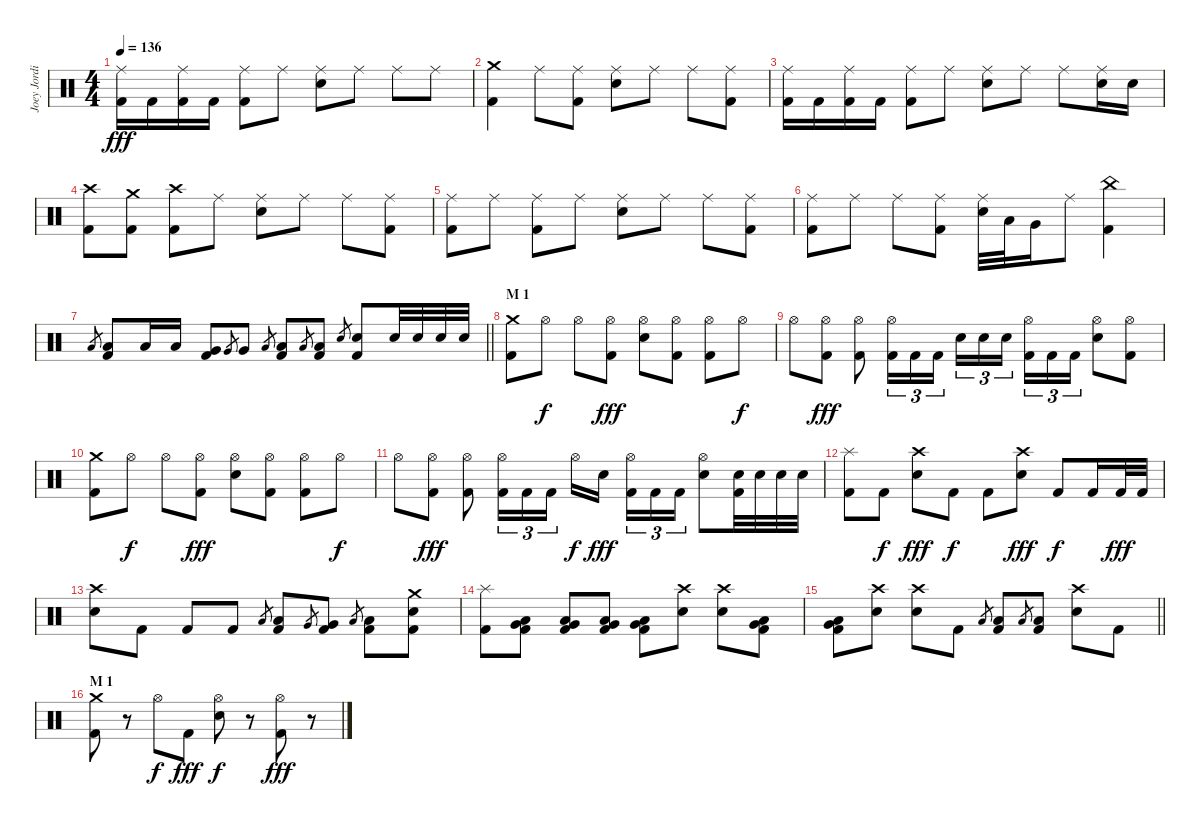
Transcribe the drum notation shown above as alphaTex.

\track ("Joey Jordison" "Joey Jordi") {instrument percussion}
\staff {score}
\articulation defaults
\ts (4 4)
\tempo 136
\clef neutral
\ks c
("Ride (middle)" "Kick (hit) 2").16{dy fff} "Kick (hit) 2".16 ("Ride (middle)" "Kick (hit) 2").16 "Kick (hit) 2".16 ("Ride (middle)" "Kick (hit) 2").8 "Ride (middle)".8 ("Ride (middle)" "Electric Snare (hit)").8 "Ride (middle)".8 "Ride (middle)".8 "Ride (middle)".8 |
("Crash medium (hit)" "Kick (hit) 2").4 "Ride (middle)".8 ("Ride (middle)" "Kick (hit) 2").8 ("Ride (middle)" "Electric Snare (hit)").8 "Ride (middle)".8 "Ride (middle)".8 ("Ride (middle)" "Kick (hit) 2").8 |
("Ride (middle)" "Kick (hit) 2").16 "Kick (hit) 2".16 ("Ride (middle)" "Kick (hit) 2").16 "Kick (hit) 2".16 ("Ride (middle)" "Kick (hit) 2").8 "Ride (middle)".8 ("Ride (middle)" "Electric Snare (hit)").8 "Ride (middle)".8 "Ride (middle)".8 ("Ride (middle)" "Electric Snare (hit)").16 "Electric Snare (hit)".16 |
("Crash high (hit)" "Kick (hit) 2").8 ("Crash medium (hit)" "Kick (hit) 2").8 ("Crash high (hit)" "Kick (hit) 2").8 "Ride (middle)".8 ("Ride (middle)" "Electric Snare (hit)").8 "Ride (middle)".8 "Ride (middle)".8 ("Ride (middle)" "Kick (hit) 2").8 |
("Ride (middle)" "Kick (hit) 2").8 "Ride (middle)".8 ("Ride (middle)" "Kick (hit) 2").8 "Ride (middle)".8 ("Ride (middle)" "Electric Snare (hit)").8 "Ride (middle)".8 "Ride (middle)".8 ("Ride (middle)" "Kick (hit) 2").8 |
("Ride (middle)" "Kick (hit) 2").8 "Ride (middle)".8 "Ride (middle)".8 ("Ride (middle)" "Kick (hit) 2").8 ("Ride (middle)" "Electric Snare (hit)").32 "Low Tom (hit)".32 "Very Low Tom (hit)".16 "Ride (middle)".8 ("China (hit)" "Kick (hit) 2").4 |
\barLineRight lightlight "Low Tom (hit)".8{gr}
("Low Tom (hit)" "Kick (hit) 2").8 "Low Tom (hit)".16 "Low Tom (hit)".16 ("Very Low Tom (hit)" "Kick (hit) 2").8 "Very Low Tom (hit)".8{gr} "Very Low Tom (hit)".8 "Low Floor Tom (hit)".8{gr} ("Low Floor Tom (hit)" "Kick (hit) 2").8 "Low Floor Tom (hit)".8{gr} ("Low Floor Tom (hit)" "Kick (hit) 2").8 "Electric Snare (hit)".8{gr} ("Electric Snare (hit)" "Kick (hit) 2").8 "Electric Snare (hit)".32 "Electric Snare (hit)".32 "Electric Snare (hit)".32 "Electric Snare (hit)".32 |
\section ("" "M 1")
("Crash medium (hit)" "Kick (hit) 2").8 "Hi-Hat (open)".8{dy f} "Hi-Hat (open)".8 ("Hi-Hat (open)" "Kick (hit) 2").8{dy fff} ("Hi-Hat (open)" "Electric Snare (hit)").8 ("Hi-Hat (open)" "Kick (hit) 2").8 ("Hi-Hat (open)" "Kick (hit) 2").8 "Hi-Hat (open)".8{dy f} |
"Hi-Hat (open)".8 ("Hi-Hat (open)" "Kick (hit) 2").8{dy fff} ("Hi-Hat (open)" "Kick (hit) 2").8 ("Hi-Hat (open)" "Kick (hit) 2").16{tu (3 2)} "Kick (hit) 2".16{tu (3 2)} "Kick (hit) 2".16{tu (3 2)} "Electric Snare (hit)".16{tu (3 2)} "Electric Snare (hit)".16{tu (3 2)} "Electric Snare (hit)".16{tu (3 2) beam splitsecondary} ("Hi-Hat (open)" "Kick (hit) 2").16{tu (3 2)} "Kick (hit) 2".16{tu (3 2)} "Kick (hit) 2".16{tu (3 2)} ("Hi-Hat (open)" "Electric Snare (hit)").8 ("Hi-Hat (open)" "Kick (hit) 2").8 |
("Crash medium (hit)" "Kick (hit) 2").8 "Hi-Hat (open)".8{dy f} "Hi-Hat (open)".8 ("Hi-Hat (open)" "Kick (hit) 2").8{dy fff} ("Hi-Hat (open)" "Electric Snare (hit)").8 ("Hi-Hat (open)" "Kick (hit) 2").8 ("Hi-Hat (open)" "Kick (hit) 2").8 "Hi-Hat (open)".8{dy f} |
"Hi-Hat (open)".8 ("Hi-Hat (open)" "Kick (hit) 2").8{dy fff} ("Hi-Hat (open)" "Kick (hit) 2").8 ("Hi-Hat (open)" "Kick (hit) 2").16{tu (3 2)} "Kick (hit) 2".16{tu (3 2)} "Kick (hit) 2".16{tu (3 2)} "Hi-Hat (open)".16{dy f} "Electric Snare (hit)".16{dy fff beam splitsecondary} ("Hi-Hat (open)" "Kick (hit) 2").16{tu (3 2)} "Kick (hit) 2".16{tu (3 2)} "Kick (hit) 2".16{tu (3 2)} ("Hi-Hat (open)" "Electric Snare (hit)").8 ("Electric Snare (hit)" "Kick (hit) 2").32 "Electric Snare (hit)".32 "Electric Snare (hit)".32 "Electric Snare (hit)".32 |
("Splash (hit)" "Kick (hit) 2").8 "Kick (hit) 2".8{dy f} ("Crash high (hit)" "Electric Snare (hit)").8{dy fff} "Kick (hit) 2".8{dy f} "Kick (hit) 2".8 ("Crash high (hit)" "Electric Snare (hit)").8{dy fff} "Kick (hit) 2".8{dy f} "Kick (hit) 2".16 "Kick (hit) 2".32{dy fff} "Kick (hit) 2".32 |
("Crash high (hit)" "Electric Snare (hit)").8 "Kick (hit) 2".8 "Kick (hit) 2".8 "Kick (hit) 2".8 "Low Tom (hit)".8{gr} ("Low Tom (hit)" "Kick (hit) 2").8 "Very Low Tom (hit)".8{gr} ("Very Low Tom (hit)" "Kick (hit) 2").8 "Low Floor Tom (hit)".8{gr} ("Low Floor Tom (hit)" "Kick (hit) 2").8 ("Crash medium (hit)" "Electric Snare (hit)" "Kick (hit) 2").8 |
("Splash (hit)" "Kick (hit) 2").8 ("Very Low Tom (hit)" "Low Floor Tom (hit)" "Kick (hit) 2").8 ("Very Low Tom (hit)" "Low Floor Tom (hit)" "Kick (hit) 2").8 ("Very Low Tom (hit)" "Low Floor Tom (hit)" "Kick (hit) 2").8 ("Very Low Tom (hit)" "Low Floor Tom (hit)" "Kick (hit) 2").8 ("Crash high (hit)" "Electric Snare (hit)").8 ("Crash high (hit)" "Electric Snare (hit)").8 ("Very Low Tom (hit)" "Low Floor Tom (hit)" "Kick (hit) 2").8 |
\barLineRight lightlight
("Very Low Tom (hit)" "Low Floor Tom (hit)" "Kick (hit) 2").8 ("Crash high (hit)" "Electric Snare (hit)").8 ("Crash high (hit)" "Electric Snare (hit)").8 "Kick (hit) 2".8 "Low Floor Tom (hit)".8{gr} ("Low Floor Tom (hit)" "Kick (hit) 2").8 "Low Floor Tom (hit)".8{gr} ("Low Floor Tom (hit)" "Kick (hit) 2").8 ("Crash high (hit)" "Electric Snare (hit)").8 "Kick (hit) 2".8 |
\section ("" "M 1")
("Crash medium (hit)" "Kick (hit) 2").8 r.8 "Hi-Hat (open)".8{dy f} "Kick (hit) 2".8{dy fff} ("Hi-Hat (open)" "Electric Snare (hit)").8{dy f} r.8 ("Hi-Hat (open)" "Kick (hit) 2").8{dy fff} r.8
